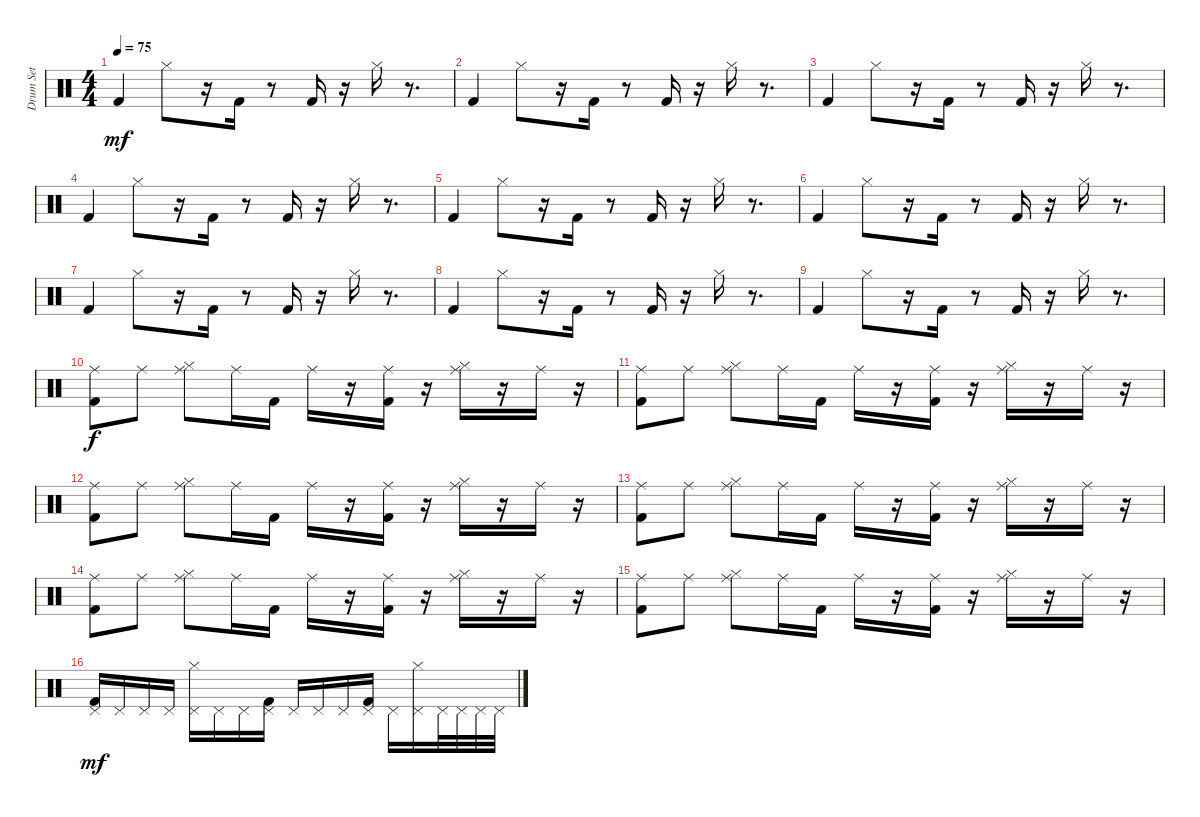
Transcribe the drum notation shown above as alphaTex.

\track ("Drum Set" "Drum Set") {instrument percussion}
\staff {score}
\articulation defaults
\ts (4 4)
\tempo 75
\clef neutral
\ks c "Kick (hit) 2".4{dy mf} "Hi-Hat (closed)".8
r.16 "Kick (hit) 2".16 r.8 "Kick (hit) 2".16 r.16 "Hi-Hat (closed)".16 r.8{d} |
"Kick (hit) 2".4 "Hi-Hat (closed)".8 r.16 "Kick (hit) 2".16 r.8 "Kick (hit) 2".16 r.16 "Hi-Hat (closed)".16 r.8{d} |
"Kick (hit) 2".4 "Hi-Hat (closed)".8 r.16 "Kick (hit) 2".16 r.8 "Kick (hit) 2".16 r.16 "Hi-Hat (closed)".16 r.8{d} |
"Kick (hit) 2".4 "Hi-Hat (closed)".8 r.16 "Kick (hit) 2".16 r.8 "Kick (hit) 2".16 r.16 "Hi-Hat (closed)".16 r.8{d} |
"Kick (hit) 2".4 "Hi-Hat (closed)".8 r.16 "Kick (hit) 2".16 r.8 "Kick (hit) 2".16 r.16 "Hi-Hat (closed)".16 r.8{d} |
"Kick (hit) 2".4 "Hi-Hat (closed)".8 r.16 "Kick (hit) 2".16 r.8 "Kick (hit) 2".16 r.16 "Hi-Hat (closed)".16 r.8{d} |
"Kick (hit) 2".4 "Hi-Hat (closed)".8 r.16 "Kick (hit) 2".16 r.8 "Kick (hit) 2".16 r.16 "Hi-Hat (closed)".16 r.8{d} |
"Kick (hit) 2".4 "Hi-Hat (closed)".8 r.16 "Kick (hit) 2".16 r.8 "Kick (hit) 2".16 r.16 "Hi-Hat (closed)".16 r.8{d} |
"Kick (hit) 2".4 "Hi-Hat (closed)".8 r.16 "Kick (hit) 2".16 r.8 "Kick (hit) 2".16 r.16 "Hi-Hat (closed)".16 r.8{d} |
("Kick (hit) 2" "Ride (middle)").8{dy f} "Ride (middle)".8 ("Hi-Hat (closed)" "Ride (middle)").8 "Ride (middle)".16 "Kick (hit) 2".16 "Ride (middle)".16 r.16 ("Kick (hit) 2" "Ride (middle)").16 r.16 ("Hi-Hat (closed)" "Ride (middle)").16 r.16 "Ride (middle)".16 r.16 |
("Kick (hit) 2" "Ride (middle)").8 "Ride (middle)".8 ("Hi-Hat (closed)" "Ride (middle)").8 "Ride (middle)".16 "Kick (hit) 2".16 "Ride (middle)".16 r.16 ("Kick (hit) 2" "Ride (middle)").16 r.16 ("Hi-Hat (closed)" "Ride (middle)").16 r.16 "Ride (middle)".16 r.16 |
("Kick (hit) 2" "Ride (middle)").8 "Ride (middle)".8 ("Hi-Hat (closed)" "Ride (middle)").8 "Ride (middle)".16 "Kick (hit) 2".16 "Ride (middle)".16 r.16 ("Kick (hit) 2" "Ride (middle)").16 r.16 ("Hi-Hat (closed)" "Ride (middle)").16 r.16 "Ride (middle)".16 r.16 |
("Kick (hit) 2" "Ride (middle)").8 "Ride (middle)".8 ("Hi-Hat (closed)" "Ride (middle)").8 "Ride (middle)".16 "Kick (hit) 2".16 "Ride (middle)".16 r.16 ("Kick (hit) 2" "Ride (middle)").16 r.16 ("Hi-Hat (closed)" "Ride (middle)").16 r.16 "Ride (middle)".16 r.16 |
("Kick (hit) 2" "Ride (middle)").8 "Ride (middle)".8 ("Hi-Hat (closed)" "Ride (middle)").8 "Ride (middle)".16 "Kick (hit) 2".16 "Ride (middle)".16 r.16 ("Kick (hit) 2" "Ride (middle)").16 r.16 ("Hi-Hat (closed)" "Ride (middle)").16 r.16 "Ride (middle)".16 r.16 |
("Kick (hit) 2" "Ride (middle)").8 "Ride (middle)".8 ("Hi-Hat (closed)" "Ride (middle)").8 "Ride (middle)".16 "Kick (hit) 2".16 "Ride (middle)".16 r.16 ("Kick (hit) 2" "Ride (middle)").16 r.16 ("Hi-Hat (closed)" "Ride (middle)").16 r.16 "Ride (middle)".16 r.16 |
("Kick (hit) 2" "Pedal Hi-Hat (hit)").16{dy mf} "Pedal Hi-Hat (hit)".16 "Pedal Hi-Hat (hit)".16 "Pedal Hi-Hat (hit)".16 ("Hi-Hat (closed)" "Pedal Hi-Hat (hit)").16 "Pedal Hi-Hat (hit)".16 "Pedal Hi-Hat (hit)".16 ("Kick (hit) 2" "Pedal Hi-Hat (hit)").16 "Pedal Hi-Hat (hit)".16 "Pedal Hi-Hat (hit)".16 "Pedal Hi-Hat (hit)".16 ("Kick (hit) 2" "Pedal Hi-Hat (hit)").16 "Pedal Hi-Hat (hit)".16 ("Hi-Hat (closed)" "Pedal Hi-Hat (hit)").16 "Pedal Hi-Hat (hit)".32 "Pedal Hi-Hat (hit)".32 "Pedal Hi-Hat (hit)".32 "Pedal Hi-Hat (hit)".32
